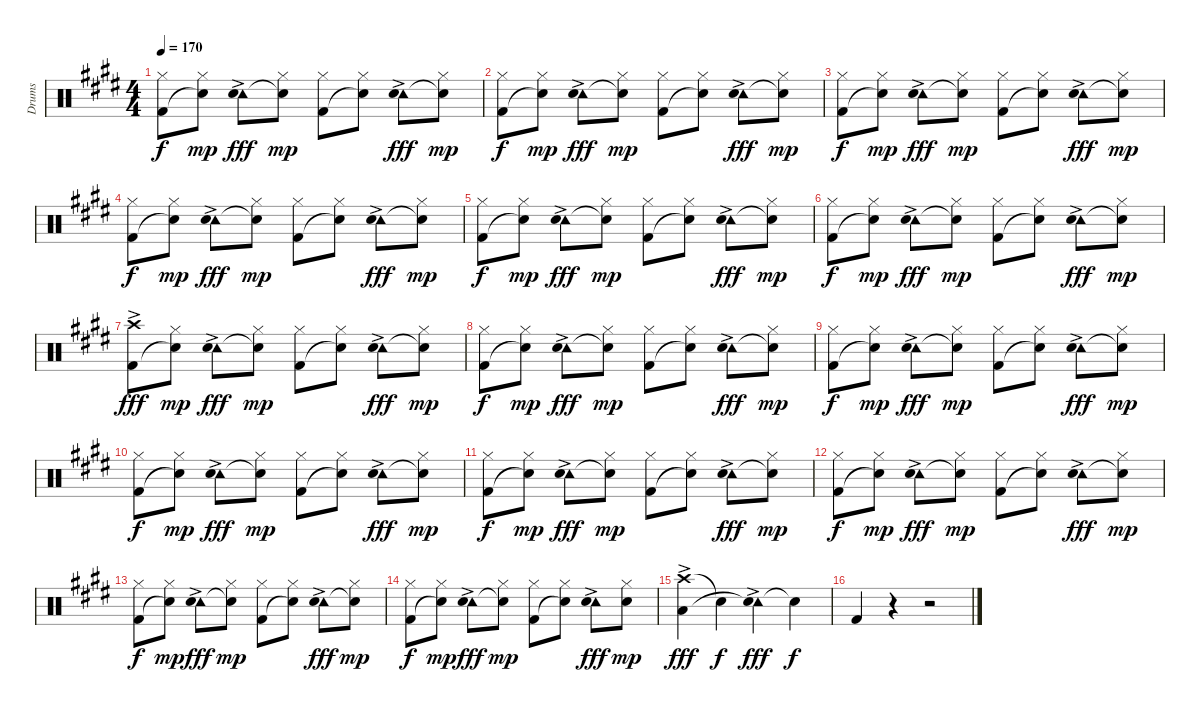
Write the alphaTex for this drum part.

\track ("Drums" "Drums") {instrument percussion}
\staff {score}
\articulation defaults
\ts (4 4)
\tempo 170
\clef neutral
\ks c#minor
("Hi-Hat (closed)" "Kick (hit) 2").8{dy f} ("Hi-Hat (closed)" "Snare (hit)"{t}).8{dy mp} ("Tambourine (hit)"{ac} "Hand Clap (hit)").8{dy fff} ("Hi-Hat (closed)" "Snare (hit)"{t}).8{dy mp} ("Hi-Hat (closed)" "Kick (hit) 2").8 ("Hi-Hat (closed)" "Snare (hit)"{t}).8 ("Tambourine (hit)"{ac} "Hand Clap (hit)").8{dy fff} ("Hi-Hat (closed)" "Snare (hit)"{t}).8{dy mp} |
("Hi-Hat (closed)" "Kick (hit) 2").8{dy f} ("Hi-Hat (closed)" "Snare (hit)"{t}).8{dy mp} ("Tambourine (hit)"{ac} "Hand Clap (hit)").8{dy fff} ("Hi-Hat (closed)" "Snare (hit)"{t}).8{dy mp} ("Hi-Hat (closed)" "Kick (hit) 2").8 ("Hi-Hat (closed)" "Snare (hit)"{t}).8 ("Tambourine (hit)"{ac} "Hand Clap (hit)").8{dy fff} ("Hi-Hat (closed)" "Snare (hit)"{t}).8{dy mp} |
("Hi-Hat (closed)" "Kick (hit) 2").8{dy f} ("Hi-Hat (closed)" "Snare (hit)"{t}).8{dy mp} ("Tambourine (hit)"{ac} "Hand Clap (hit)").8{dy fff} ("Hi-Hat (closed)" "Snare (hit)"{t}).8{dy mp} ("Hi-Hat (closed)" "Kick (hit) 2").8 ("Hi-Hat (closed)" "Snare (hit)"{t}).8 ("Tambourine (hit)"{ac} "Hand Clap (hit)").8{dy fff} ("Hi-Hat (closed)" "Snare (hit)"{t}).8{dy mp} |
("Hi-Hat (closed)" "Kick (hit) 2").8{dy f} ("Hi-Hat (closed)" "Snare (hit)"{t}).8{dy mp} ("Tambourine (hit)"{ac} "Hand Clap (hit)").8{dy fff} ("Hi-Hat (closed)" "Snare (hit)"{t}).8{dy mp} ("Hi-Hat (closed)" "Kick (hit) 2").8 ("Hi-Hat (closed)" "Snare (hit)"{t}).8 ("Tambourine (hit)"{ac} "Hand Clap (hit)").8{dy fff} ("Hi-Hat (closed)" "Snare (hit)"{t}).8{dy mp} |
("Hi-Hat (closed)" "Kick (hit) 2").8{dy f} ("Hi-Hat (closed)" "Snare (hit)"{t}).8{dy mp} ("Tambourine (hit)"{ac} "Hand Clap (hit)").8{dy fff} ("Hi-Hat (closed)" "Snare (hit)"{t}).8{dy mp} ("Hi-Hat (closed)" "Kick (hit) 2").8 ("Hi-Hat (closed)" "Snare (hit)"{t}).8 ("Tambourine (hit)"{ac} "Hand Clap (hit)").8{dy fff} ("Hi-Hat (closed)" "Snare (hit)"{t}).8{dy mp} |
("Hi-Hat (closed)" "Kick (hit) 2").8{dy f} ("Hi-Hat (closed)" "Snare (hit)"{t}).8{dy mp} ("Tambourine (hit)"{ac} "Hand Clap (hit)").8{dy fff} ("Hi-Hat (closed)" "Snare (hit)"{t}).8{dy mp} ("Hi-Hat (closed)" "Kick (hit) 2").8 ("Hi-Hat (closed)" "Snare (hit)"{t}).8 ("Tambourine (hit)"{ac} "Hand Clap (hit)").8{dy fff} ("Hi-Hat (closed)" "Snare (hit)"{t}).8{dy mp} |
("Crash high (hit)"{ac} "Kick (hit) 2").8{dy fff} ("Hi-Hat (closed)" "Snare (hit)"{t}).8{dy mp} ("Tambourine (hit)"{ac} "Hand Clap (hit)").8{dy fff} ("Hi-Hat (closed)" "Snare (hit)"{t}).8{dy mp} ("Hi-Hat (closed)" "Kick (hit) 2").8 ("Hi-Hat (closed)" "Snare (hit)"{t}).8 ("Tambourine (hit)"{ac} "Hand Clap (hit)").8{dy fff} ("Hi-Hat (closed)" "Snare (hit)"{t}).8{dy mp} |
("Hi-Hat (closed)" "Kick (hit) 2").8{dy f} ("Hi-Hat (closed)" "Snare (hit)"{t}).8{dy mp} ("Tambourine (hit)"{ac} "Hand Clap (hit)").8{dy fff} ("Hi-Hat (closed)" "Snare (hit)"{t}).8{dy mp} ("Hi-Hat (closed)" "Kick (hit) 2").8 ("Hi-Hat (closed)" "Snare (hit)"{t}).8 ("Tambourine (hit)"{ac} "Hand Clap (hit)").8{dy fff} ("Hi-Hat (closed)" "Snare (hit)"{t}).8{dy mp} |
("Hi-Hat (closed)" "Kick (hit) 2").8{dy f} ("Hi-Hat (closed)" "Snare (hit)"{t}).8{dy mp} ("Tambourine (hit)"{ac} "Hand Clap (hit)").8{dy fff} ("Hi-Hat (closed)" "Snare (hit)"{t}).8{dy mp} ("Hi-Hat (closed)" "Kick (hit) 2").8 ("Hi-Hat (closed)" "Snare (hit)"{t}).8 ("Tambourine (hit)"{ac} "Hand Clap (hit)").8{dy fff} ("Hi-Hat (closed)" "Snare (hit)"{t}).8{dy mp} |
("Hi-Hat (closed)" "Kick (hit) 2").8{dy f} ("Hi-Hat (closed)" "Snare (hit)"{t}).8{dy mp} ("Tambourine (hit)"{ac} "Hand Clap (hit)").8{dy fff} ("Hi-Hat (closed)" "Snare (hit)"{t}).8{dy mp} ("Hi-Hat (closed)" "Kick (hit) 2").8 ("Hi-Hat (closed)" "Snare (hit)"{t}).8 ("Tambourine (hit)"{ac} "Hand Clap (hit)").8{dy fff} ("Hi-Hat (closed)" "Snare (hit)"{t}).8{dy mp} |
("Hi-Hat (closed)" "Kick (hit) 2").8{dy f} ("Hi-Hat (closed)" "Snare (hit)"{t}).8{dy mp} ("Tambourine (hit)"{ac} "Hand Clap (hit)").8{dy fff} ("Hi-Hat (closed)" "Snare (hit)"{t}).8{dy mp} ("Hi-Hat (closed)" "Kick (hit) 2").8 ("Hi-Hat (closed)" "Snare (hit)"{t}).8 ("Tambourine (hit)"{ac} "Hand Clap (hit)").8{dy fff} ("Hi-Hat (closed)" "Snare (hit)"{t}).8{dy mp} |
("Hi-Hat (closed)" "Kick (hit) 2").8{dy f} ("Hi-Hat (closed)" "Snare (hit)"{t}).8{dy mp} ("Tambourine (hit)"{ac} "Hand Clap (hit)").8{dy fff} ("Hi-Hat (closed)" "Snare (hit)"{t}).8{dy mp} ("Hi-Hat (closed)" "Kick (hit) 2").8 ("Hi-Hat (closed)" "Snare (hit)"{t}).8 ("Tambourine (hit)"{ac} "Hand Clap (hit)").8{dy fff} ("Hi-Hat (closed)" "Snare (hit)"{t}).8{dy mp} |
("Hi-Hat (closed)" "Kick (hit) 2").8{dy f} ("Hi-Hat (closed)" "Snare (hit)"{t}).8{dy mp} ("Tambourine (hit)"{ac} "Hand Clap (hit)").8{dy fff} ("Hi-Hat (closed)" "Snare (hit)"{t}).8{dy mp} ("Hi-Hat (closed)" "Kick (hit) 2").8 ("Hi-Hat (closed)" "Snare (hit)"{t}).8 ("Tambourine (hit)"{ac} "Hand Clap (hit)").8{dy fff} ("Hi-Hat (closed)" "Snare (hit)"{t}).8{dy mp} |
("Hi-Hat (closed)" "Kick (hit) 2").8{dy f} ("Hi-Hat (closed)" "Snare (hit)"{t}).8{dy mp} ("Tambourine (hit)"{ac} "Hand Clap (hit)").8{dy fff} ("Hi-Hat (closed)" "Snare (hit)"{t}).8{dy mp} ("Hi-Hat (closed)" "Kick (hit) 2").8 ("Hi-Hat (closed)" "Snare (hit)"{t}).8 ("Tambourine (hit)"{ac} "Hand Clap (hit)").8{dy fff} ("Hi-Hat (closed)" "Hand Clap (hit)").8{dy mp} |
("Crash high (hit)"{ac} "Low Floor Tom (hit)").4{dy fff} "Snare (hit)"{t}.4{dy f} ("Tambourine (hit)"{ac} "Snare (hit)"{t}).4{dy fff} "Snare (hit)"{t}.4{dy f} |
"Kick (hit) 2".4 r.4 r.2
